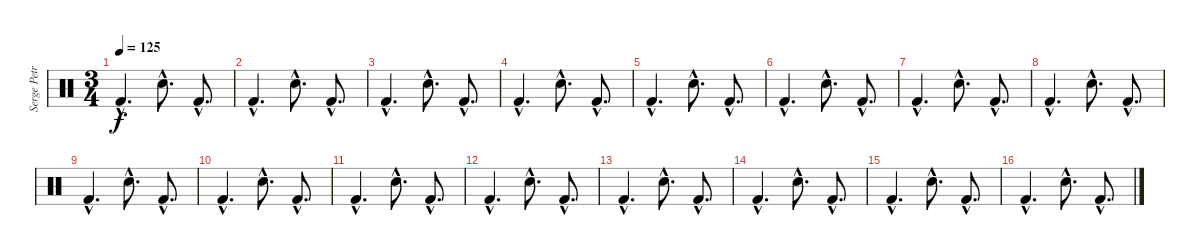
\track ("Serge Petrone" "Serge Petr") {instrument percussion}
\staff {score}
\articulation defaults
\ts (3 4)
\tempo 125
\clef neutral
\ks c "Kick (hit) 2"{hac}.4{d dy f} "Snare (hit) 2"{hac}.8{d} "Kick (hit) 2"{hac}.8{d}
|
"Kick (hit) 2"{hac}.4{d} "Snare (hit) 2"{hac}.8{d} "Kick (hit) 2"{hac}.8{d} |
"Kick (hit) 2"{hac}.4{d} "Snare (hit) 2"{hac}.8{d} "Kick (hit) 2"{hac}.8{d} |
"Kick (hit) 2"{hac}.4{d} "Snare (hit) 2"{hac}.8{d} "Kick (hit) 2"{hac}.8{d} |
"Kick (hit) 2"{hac}.4{d} "Snare (hit) 2"{hac}.8{d} "Kick (hit) 2"{hac}.8{d} |
"Kick (hit) 2"{hac}.4{d} "Snare (hit) 2"{hac}.8{d} "Kick (hit) 2"{hac}.8{d} |
"Kick (hit) 2"{hac}.4{d} "Snare (hit) 2"{hac}.8{d} "Kick (hit) 2"{hac}.8{d} |
"Kick (hit) 2"{hac}.4{d} "Snare (hit) 2"{hac}.8{d} "Kick (hit) 2"{hac}.8{d} |
"Kick (hit) 2"{hac}.4{d} "Snare (hit) 2"{hac}.8{d} "Kick (hit) 2"{hac}.8{d} |
"Kick (hit) 2"{hac}.4{d} "Snare (hit) 2"{hac}.8{d} "Kick (hit) 2"{hac}.8{d} |
"Kick (hit) 2"{hac}.4{d} "Snare (hit) 2"{hac}.8{d} "Kick (hit) 2"{hac}.8{d} |
"Kick (hit) 2"{hac}.4{d} "Snare (hit) 2"{hac}.8{d} "Kick (hit) 2"{hac}.8{d} |
"Kick (hit) 2"{hac}.4{d} "Snare (hit) 2"{hac}.8{d} "Kick (hit) 2"{hac}.8{d} |
"Kick (hit) 2"{hac}.4{d} "Snare (hit) 2"{hac}.8{d} "Kick (hit) 2"{hac}.8{d} |
"Kick (hit) 2"{hac}.4{d} "Snare (hit) 2"{hac}.8{d} "Kick (hit) 2"{hac}.8{d} |
"Kick (hit) 2"{hac}.4{d} "Snare (hit) 2"{hac}.8{d} "Kick (hit) 2"{hac}.8{d}
